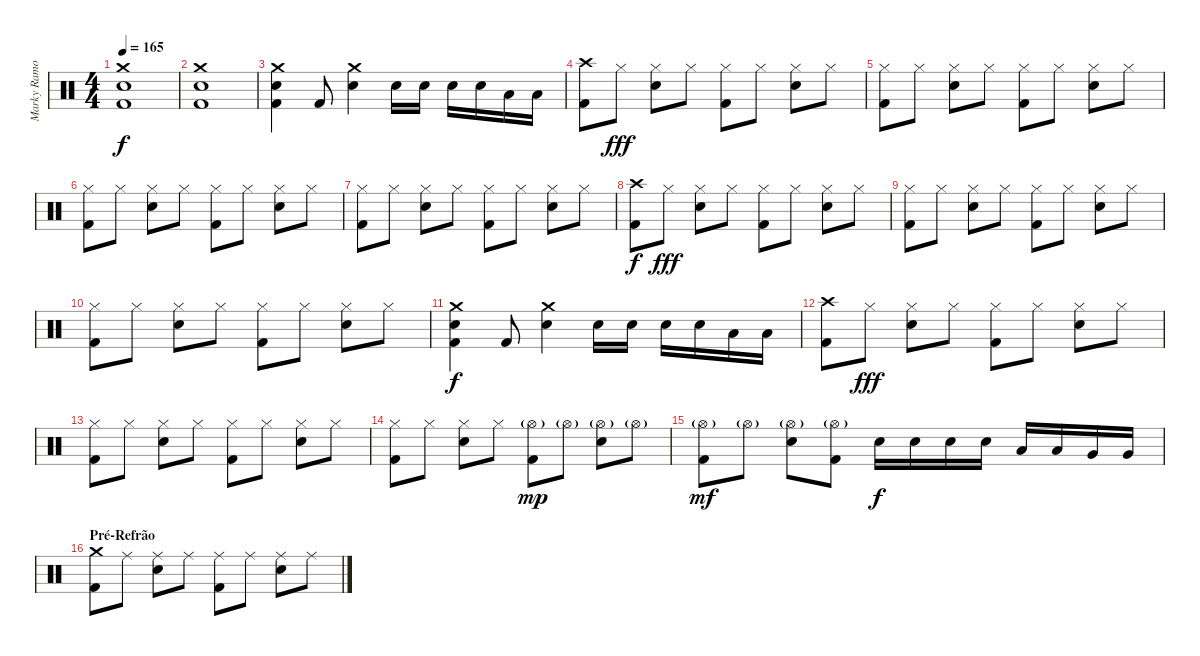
\track ("Marky Ramone, o Próprio" "Marky Ramo") {instrument percussion}
\staff {score}
\articulation defaults
\ts (4 4)
\tempo 165
\clef neutral
\ks c
("Crash medium (hit)" "Electric Snare (hit)" "Kick (hit) 2").1{dy f} |
("Crash medium (hit)" "Electric Snare (hit)" "Kick (hit) 2").1 |
("Crash medium (hit)" "Electric Snare (hit)" "Kick (hit) 2").4 "Kick (hit) 2".8 ("Crash medium (hit)" "Electric Snare (hit)").4 "Electric Snare (hit)".16 "Electric Snare (hit)".16 "Electric Snare (hit)".16 "Electric Snare (hit)".16 "Low Tom (hit)".16 "Low Tom (hit)".16 |
("Crash high (hit)" "Kick (hit) 2").8 "Hi-Hat (closed)".8{dy fff} ("Hi-Hat (closed)" "Electric Snare (hit)").8 "Hi-Hat (closed)".8 ("Hi-Hat (closed)" "Kick (hit) 2").8 "Hi-Hat (closed)".8 ("Hi-Hat (closed)" "Electric Snare (hit)").8 "Hi-Hat (closed)".8 |
("Hi-Hat (closed)" "Kick (hit) 2").8 "Hi-Hat (closed)".8 ("Hi-Hat (closed)" "Electric Snare (hit)").8 "Hi-Hat (closed)".8 ("Hi-Hat (closed)" "Kick (hit) 2").8 "Hi-Hat (closed)".8 ("Hi-Hat (closed)" "Electric Snare (hit)").8 "Hi-Hat (closed)".8 |
("Hi-Hat (closed)" "Kick (hit) 2").8 "Hi-Hat (closed)".8 ("Hi-Hat (closed)" "Electric Snare (hit)").8 "Hi-Hat (closed)".8 ("Hi-Hat (closed)" "Kick (hit) 2").8 "Hi-Hat (closed)".8 ("Hi-Hat (closed)" "Electric Snare (hit)").8 "Hi-Hat (closed)".8 |
("Hi-Hat (closed)" "Kick (hit) 2").8 "Hi-Hat (closed)".8 ("Hi-Hat (closed)" "Electric Snare (hit)").8 "Hi-Hat (closed)".8 ("Hi-Hat (closed)" "Kick (hit) 2").8 "Hi-Hat (closed)".8 ("Hi-Hat (closed)" "Electric Snare (hit)").8 "Hi-Hat (closed)".8 |
("Crash high (hit)" "Kick (hit) 2").8{dy f} "Hi-Hat (closed)".8{dy fff} ("Hi-Hat (closed)" "Electric Snare (hit)").8 "Hi-Hat (closed)".8 ("Hi-Hat (closed)" "Kick (hit) 2").8 "Hi-Hat (closed)".8 ("Hi-Hat (closed)" "Electric Snare (hit)").8 "Hi-Hat (closed)".8 |
("Hi-Hat (closed)" "Kick (hit) 2").8 "Hi-Hat (closed)".8 ("Hi-Hat (closed)" "Electric Snare (hit)").8 "Hi-Hat (closed)".8 ("Hi-Hat (closed)" "Kick (hit) 2").8 "Hi-Hat (closed)".8 ("Hi-Hat (closed)" "Electric Snare (hit)").8 "Hi-Hat (closed)".8 |
("Hi-Hat (closed)" "Kick (hit) 2").8 "Hi-Hat (closed)".8 ("Hi-Hat (closed)" "Electric Snare (hit)").8 "Hi-Hat (closed)".8 ("Hi-Hat (closed)" "Kick (hit) 2").8 "Hi-Hat (closed)".8 ("Hi-Hat (closed)" "Electric Snare (hit)").8 "Hi-Hat (closed)".8 |
("Crash medium (hit)" "Electric Snare (hit)" "Kick (hit) 2").4{dy f} "Kick (hit) 2".8 ("Crash medium (hit)" "Electric Snare (hit)").4 "Electric Snare (hit)".16 "Electric Snare (hit)".16 "Electric Snare (hit)".16 "Electric Snare (hit)".16 "Low Tom (hit)".16 "Low Tom (hit)".16 |
("Crash high (hit)" "Kick (hit) 2").8 "Hi-Hat (closed)".8{dy fff} ("Hi-Hat (closed)" "Electric Snare (hit)").8 "Hi-Hat (closed)".8 ("Hi-Hat (closed)" "Kick (hit) 2").8 "Hi-Hat (closed)".8 ("Hi-Hat (closed)" "Electric Snare (hit)").8 "Hi-Hat (closed)".8 |
("Hi-Hat (closed)" "Kick (hit) 2").8 "Hi-Hat (closed)".8 ("Hi-Hat (closed)" "Electric Snare (hit)").8 "Hi-Hat (closed)".8 ("Hi-Hat (closed)" "Kick (hit) 2").8 "Hi-Hat (closed)".8 ("Hi-Hat (closed)" "Electric Snare (hit)").8 "Hi-Hat (closed)".8 |
("Hi-Hat (closed)" "Kick (hit) 2").8 "Hi-Hat (closed)".8 ("Hi-Hat (closed)" "Electric Snare (hit)").8 "Hi-Hat (closed)".8 ("Hi-Hat (open)"{g} "Kick (hit) 2").8{dy mp} "Hi-Hat (open)"{g}.8 ("Hi-Hat (open)"{g} "Electric Snare (hit)").8 "Hi-Hat (open)"{g}.8 |
("Hi-Hat (open)"{g} "Kick (hit) 2").8{dy mf} "Hi-Hat (open)"{g}.8 ("Hi-Hat (open)"{g} "Electric Snare (hit)").8 ("Hi-Hat (open)"{g} "Kick (hit) 2").8 "Electric Snare (hit)".16{dy f} "Electric Snare (hit)".16 "Electric Snare (hit)".16 "Electric Snare (hit)".16 "Low Tom (hit)".16 "Low Tom (hit)".16 "Very Low Tom (hit)".16 "Very Low Tom (hit)".16 |
\section ("" "Pré-Refrão")
("Crash medium (hit)" "Kick (hit) 2").8 "Ride (middle)".8 ("Ride (middle)" "Electric Snare (hit)").8 "Ride (middle)".8 ("Ride (middle)" "Kick (hit) 2").8 "Ride (middle)".8 ("Ride (middle)" "Electric Snare (hit)").8 "Ride (middle)".8
